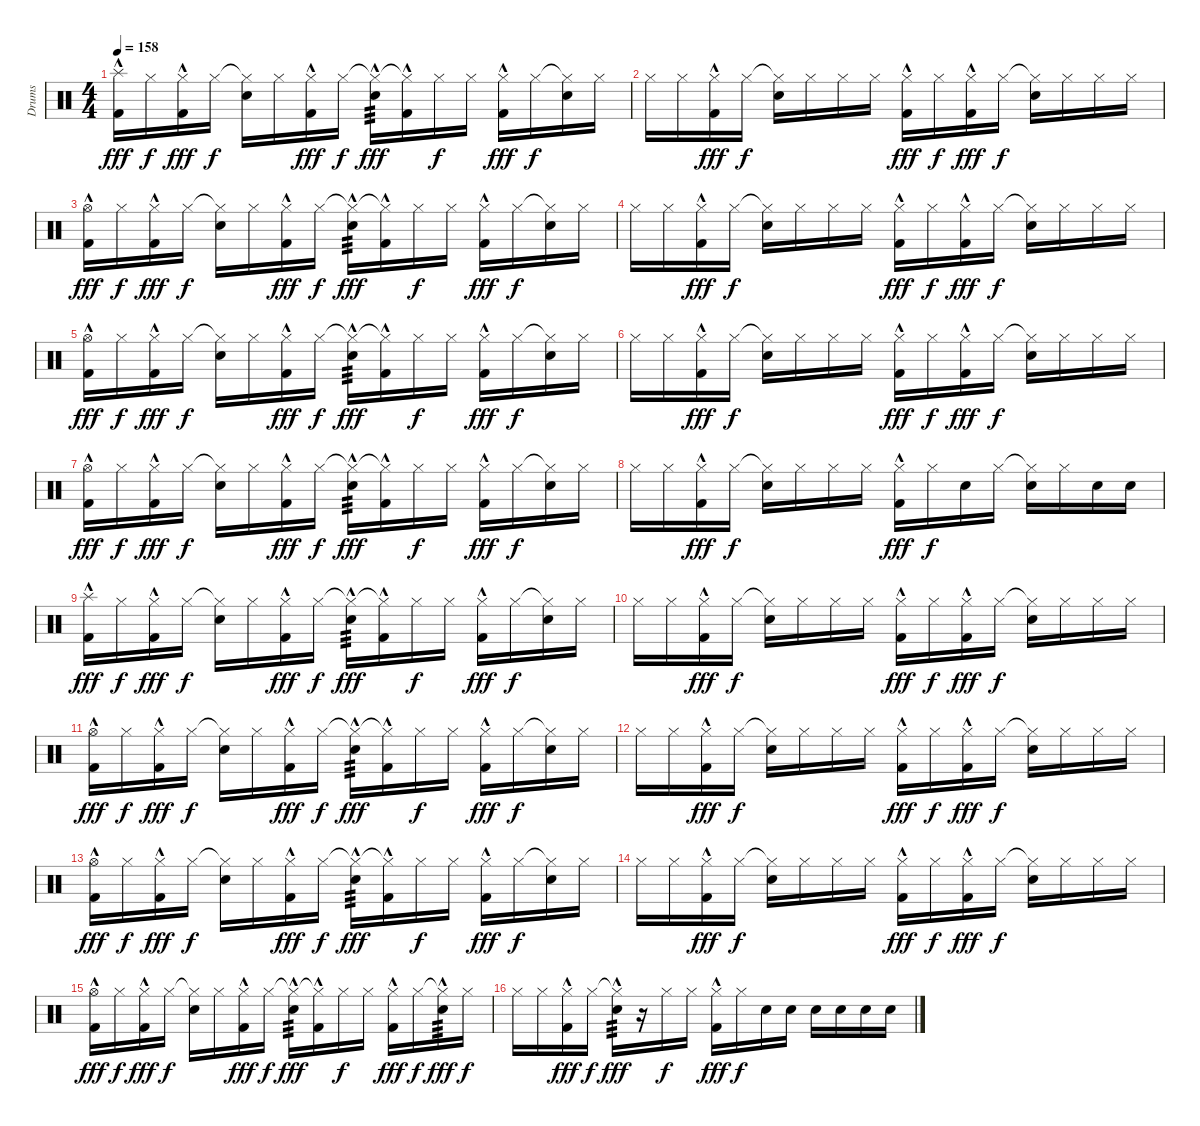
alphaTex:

\track ("Drums" "Drums") {instrument percussion}
\staff {score}
\articulation defaults
\ts (4 4)
\tempo 158
\clef neutral
\ks c
("Splash (hit)" "Kick (hit) 2"{hac}).16{dy fff} "Hi-Hat (closed)".16{dy f} ("Hi-Hat (closed)" "Kick (hit) 2"{hac}).16{dy fff} "Hi-Hat (closed)".16{dy f} ("Hi-Hat (closed)"{t} "Electric Snare (hit)").16 "Hi-Hat (closed)".16 ("Hi-Hat (closed)" "Kick (hit) 2"{hac}).16{dy fff} "Hi-Hat (closed)".16{dy f} ("Hi-Hat (closed)"{t} "Electric Snare (hit)"{hac}).16{tp 3 dy fff} ("Hi-Hat (closed)"{t} "Kick (hit) 2"{hac}).16 "Hi-Hat (closed)".16{dy f} "Hi-Hat (closed)".16 ("Hi-Hat (closed)" "Kick (hit) 2"{hac}).16{dy fff} "Hi-Hat (closed)".16{dy f} ("Hi-Hat (closed)"{t} "Electric Snare (hit)").16 "Hi-Hat (closed)".16 |
"Hi-Hat (closed)".16 "Hi-Hat (closed)".16 ("Hi-Hat (closed)" "Kick (hit) 2"{hac}).16{dy fff} "Hi-Hat (closed)".16{dy f} ("Hi-Hat (closed)"{t} "Electric Snare (hit)").16 "Hi-Hat (closed)".16 "Hi-Hat (closed)".16 "Hi-Hat (closed)".16 ("Hi-Hat (closed)" "Kick (hit) 2"{hac}).16{dy fff} "Hi-Hat (closed)".16{dy f} ("Hi-Hat (closed)" "Kick (hit) 2"{hac}).16{dy fff} "Hi-Hat (closed)".16{dy f} ("Hi-Hat (closed)"{t} "Electric Snare (hit)").16 "Hi-Hat (closed)".16 "Hi-Hat (closed)".16 "Hi-Hat (closed)".16 |
("Hi-Hat (open)" "Kick (hit) 2"{hac}).16{dy fff} "Hi-Hat (closed)".16{dy f} ("Hi-Hat (closed)" "Kick (hit) 2"{hac}).16{dy fff} "Hi-Hat (closed)".16{dy f} ("Hi-Hat (closed)"{t} "Electric Snare (hit)").16 "Hi-Hat (closed)".16 ("Hi-Hat (closed)" "Kick (hit) 2"{hac}).16{dy fff} "Hi-Hat (closed)".16{dy f} ("Hi-Hat (closed)"{t} "Electric Snare (hit)"{hac}).16{tp 3 dy fff} ("Hi-Hat (closed)"{t} "Kick (hit) 2"{hac}).16 "Hi-Hat (closed)".16{dy f} "Hi-Hat (closed)".16 ("Hi-Hat (closed)" "Kick (hit) 2"{hac}).16{dy fff} "Hi-Hat (closed)".16{dy f} ("Hi-Hat (closed)"{t} "Electric Snare (hit)").16 "Hi-Hat (closed)".16 |
"Hi-Hat (closed)".16 "Hi-Hat (closed)".16 ("Hi-Hat (closed)" "Kick (hit) 2"{hac}).16{dy fff} "Hi-Hat (closed)".16{dy f} ("Hi-Hat (closed)"{t} "Electric Snare (hit)").16 "Hi-Hat (closed)".16 "Hi-Hat (closed)".16 "Hi-Hat (closed)".16 ("Hi-Hat (closed)" "Kick (hit) 2"{hac}).16{dy fff} "Hi-Hat (closed)".16{dy f} ("Hi-Hat (closed)" "Kick (hit) 2"{hac}).16{dy fff} "Hi-Hat (closed)".16{dy f} ("Hi-Hat (closed)"{t} "Electric Snare (hit)").16 "Hi-Hat (closed)".16 "Hi-Hat (closed)".16 "Hi-Hat (closed)".16 |
("Hi-Hat (open)" "Kick (hit) 2"{hac}).16{dy fff} "Hi-Hat (closed)".16{dy f} ("Hi-Hat (closed)" "Kick (hit) 2"{hac}).16{dy fff} "Hi-Hat (closed)".16{dy f} ("Hi-Hat (closed)"{t} "Electric Snare (hit)").16 "Hi-Hat (closed)".16 ("Hi-Hat (closed)" "Kick (hit) 2"{hac}).16{dy fff} "Hi-Hat (closed)".16{dy f} ("Hi-Hat (closed)"{t} "Electric Snare (hit)"{hac}).16{tp 3 dy fff} ("Hi-Hat (closed)"{t} "Kick (hit) 2"{hac}).16 "Hi-Hat (closed)".16{dy f} "Hi-Hat (closed)".16 ("Hi-Hat (closed)" "Kick (hit) 2"{hac}).16{dy fff} "Hi-Hat (closed)".16{dy f} ("Hi-Hat (closed)"{t} "Electric Snare (hit)").16 "Hi-Hat (closed)".16 |
"Hi-Hat (closed)".16 "Hi-Hat (closed)".16 ("Hi-Hat (closed)" "Kick (hit) 2"{hac}).16{dy fff} "Hi-Hat (closed)".16{dy f} ("Hi-Hat (closed)"{t} "Electric Snare (hit)").16 "Hi-Hat (closed)".16 "Hi-Hat (closed)".16 "Hi-Hat (closed)".16 ("Hi-Hat (closed)" "Kick (hit) 2"{hac}).16{dy fff} "Hi-Hat (closed)".16{dy f} ("Hi-Hat (closed)" "Kick (hit) 2"{hac}).16{dy fff} "Hi-Hat (closed)".16{dy f} ("Hi-Hat (closed)"{t} "Electric Snare (hit)").16 "Hi-Hat (closed)".16 "Hi-Hat (closed)".16 "Hi-Hat (closed)".16 |
("Hi-Hat (open)" "Kick (hit) 2"{hac}).16{dy fff} "Hi-Hat (closed)".16{dy f} ("Hi-Hat (closed)" "Kick (hit) 2"{hac}).16{dy fff} "Hi-Hat (closed)".16{dy f} ("Hi-Hat (closed)"{t} "Electric Snare (hit)").16 "Hi-Hat (closed)".16 ("Hi-Hat (closed)" "Kick (hit) 2"{hac}).16{dy fff} "Hi-Hat (closed)".16{dy f} ("Hi-Hat (closed)"{t} "Electric Snare (hit)"{hac}).16{tp 3 dy fff} ("Hi-Hat (closed)"{t} "Kick (hit) 2"{hac}).16 "Hi-Hat (closed)".16{dy f} "Hi-Hat (closed)".16 ("Hi-Hat (closed)" "Kick (hit) 2"{hac}).16{dy fff} "Hi-Hat (closed)".16{dy f} ("Hi-Hat (closed)"{t} "Electric Snare (hit)").16 "Hi-Hat (closed)".16 |
"Hi-Hat (closed)".16 "Hi-Hat (closed)".16 ("Hi-Hat (closed)" "Kick (hit) 2"{hac}).16{dy fff} "Hi-Hat (closed)".16{dy f} ("Hi-Hat (closed)"{t} "Electric Snare (hit)").16 "Hi-Hat (closed)".16 "Hi-Hat (closed)".16 "Hi-Hat (closed)".16 ("Hi-Hat (closed)" "Kick (hit) 2"{hac}).16{dy fff} "Hi-Hat (closed)".16{dy f} "Electric Snare (hit)".16 "Hi-Hat (closed)".16 ("Hi-Hat (closed)"{t} "Electric Snare (hit)").16 "Hi-Hat (closed)".16 "Electric Snare (hit)".16 "Electric Snare (hit)".16 |
("Splash (hit)" "Kick (hit) 2"{hac}).16{dy fff} "Hi-Hat (closed)".16{dy f} ("Hi-Hat (closed)" "Kick (hit) 2"{hac}).16{dy fff} "Hi-Hat (closed)".16{dy f} ("Hi-Hat (closed)"{t} "Electric Snare (hit)").16 "Hi-Hat (closed)".16 ("Hi-Hat (closed)" "Kick (hit) 2"{hac}).16{dy fff} "Hi-Hat (closed)".16{dy f} ("Hi-Hat (closed)"{t} "Electric Snare (hit)"{hac}).16{tp 3 dy fff} ("Hi-Hat (closed)"{t} "Kick (hit) 2"{hac}).16 "Hi-Hat (closed)".16{dy f} "Hi-Hat (closed)".16 ("Hi-Hat (closed)" "Kick (hit) 2"{hac}).16{dy fff} "Hi-Hat (closed)".16{dy f} ("Hi-Hat (closed)"{t} "Electric Snare (hit)").16 "Hi-Hat (closed)".16 |
"Hi-Hat (closed)".16 "Hi-Hat (closed)".16 ("Hi-Hat (closed)" "Kick (hit) 2"{hac}).16{dy fff} "Hi-Hat (closed)".16{dy f} ("Hi-Hat (closed)"{t} "Electric Snare (hit)").16 "Hi-Hat (closed)".16 "Hi-Hat (closed)".16 "Hi-Hat (closed)".16 ("Hi-Hat (closed)" "Kick (hit) 2"{hac}).16{dy fff} "Hi-Hat (closed)".16{dy f} ("Hi-Hat (closed)" "Kick (hit) 2"{hac}).16{dy fff} "Hi-Hat (closed)".16{dy f} ("Hi-Hat (closed)"{t} "Electric Snare (hit)").16 "Hi-Hat (closed)".16 "Hi-Hat (closed)".16 "Hi-Hat (closed)".16 |
("Hi-Hat (open)" "Kick (hit) 2"{hac}).16{dy fff} "Hi-Hat (closed)".16{dy f} ("Hi-Hat (closed)" "Kick (hit) 2"{hac}).16{dy fff} "Hi-Hat (closed)".16{dy f} ("Hi-Hat (closed)"{t} "Electric Snare (hit)").16 "Hi-Hat (closed)".16 ("Hi-Hat (closed)" "Kick (hit) 2"{hac}).16{dy fff} "Hi-Hat (closed)".16{dy f} ("Hi-Hat (closed)"{t} "Electric Snare (hit)"{hac}).16{tp 3 dy fff} ("Hi-Hat (closed)"{t} "Kick (hit) 2"{hac}).16 "Hi-Hat (closed)".16{dy f} "Hi-Hat (closed)".16 ("Hi-Hat (closed)" "Kick (hit) 2"{hac}).16{dy fff} "Hi-Hat (closed)".16{dy f} ("Hi-Hat (closed)"{t} "Electric Snare (hit)").16 "Hi-Hat (closed)".16 |
"Hi-Hat (closed)".16 "Hi-Hat (closed)".16 ("Hi-Hat (closed)" "Kick (hit) 2"{hac}).16{dy fff} "Hi-Hat (closed)".16{dy f} ("Hi-Hat (closed)"{t} "Electric Snare (hit)").16 "Hi-Hat (closed)".16 "Hi-Hat (closed)".16 "Hi-Hat (closed)".16 ("Hi-Hat (closed)" "Kick (hit) 2"{hac}).16{dy fff} "Hi-Hat (closed)".16{dy f} ("Hi-Hat (closed)" "Kick (hit) 2"{hac}).16{dy fff} "Hi-Hat (closed)".16{dy f} ("Hi-Hat (closed)"{t} "Electric Snare (hit)").16 "Hi-Hat (closed)".16 "Hi-Hat (closed)".16 "Hi-Hat (closed)".16 |
("Hi-Hat (open)" "Kick (hit) 2"{hac}).16{dy fff} "Hi-Hat (closed)".16{dy f} ("Hi-Hat (closed)" "Kick (hit) 2"{hac}).16{dy fff} "Hi-Hat (closed)".16{dy f} ("Hi-Hat (closed)"{t} "Electric Snare (hit)").16 "Hi-Hat (closed)".16 ("Hi-Hat (closed)" "Kick (hit) 2"{hac}).16{dy fff} "Hi-Hat (closed)".16{dy f} ("Hi-Hat (closed)"{t} "Electric Snare (hit)"{hac}).16{tp 3 dy fff} ("Hi-Hat (closed)"{t} "Kick (hit) 2"{hac}).16 "Hi-Hat (closed)".16{dy f} "Hi-Hat (closed)".16 ("Hi-Hat (closed)" "Kick (hit) 2"{hac}).16{dy fff} "Hi-Hat (closed)".16{dy f} ("Hi-Hat (closed)"{t} "Electric Snare (hit)").16 "Hi-Hat (closed)".16 |
"Hi-Hat (closed)".16 "Hi-Hat (closed)".16 ("Hi-Hat (closed)" "Kick (hit) 2"{hac}).16{dy fff} "Hi-Hat (closed)".16{dy f} ("Hi-Hat (closed)"{t} "Electric Snare (hit)").16 "Hi-Hat (closed)".16 "Hi-Hat (closed)".16 "Hi-Hat (closed)".16 ("Hi-Hat (closed)" "Kick (hit) 2"{hac}).16{dy fff} "Hi-Hat (closed)".16{dy f} ("Hi-Hat (closed)" "Kick (hit) 2"{hac}).16{dy fff} "Hi-Hat (closed)".16{dy f} ("Hi-Hat (closed)"{t} "Electric Snare (hit)").16 "Hi-Hat (closed)".16 "Hi-Hat (closed)".16 "Hi-Hat (closed)".16 |
("Hi-Hat (open)" "Kick (hit) 2"{hac}).16{dy fff} "Hi-Hat (closed)".16{dy f} ("Hi-Hat (closed)" "Kick (hit) 2"{hac}).16{dy fff} "Hi-Hat (closed)".16{dy f} ("Hi-Hat (closed)"{t} "Electric Snare (hit)").16 "Hi-Hat (closed)".16 ("Hi-Hat (closed)" "Kick (hit) 2"{hac}).16{dy fff} "Hi-Hat (closed)".16{dy f} ("Hi-Hat (closed)"{t} "Electric Snare (hit)"{hac}).16{tp 3 dy fff} ("Hi-Hat (closed)"{t} "Kick (hit) 2"{hac}).16 "Hi-Hat (closed)".16{dy f} "Hi-Hat (closed)".16 ("Hi-Hat (closed)" "Kick (hit) 2"{hac}).16{dy fff} "Hi-Hat (closed)".16{dy f} ("Hi-Hat (closed)"{t} "Electric Snare (hit)"{hac}).16{tp 3 dy fff} "Hi-Hat (closed)".16{dy f} |
"Hi-Hat (closed)".16 "Hi-Hat (closed)".16 ("Hi-Hat (closed)" "Kick (hit) 2"{hac}).16{dy fff} "Hi-Hat (closed)".16{dy f} ("Hi-Hat (closed)"{t} "Electric Snare (hit)"{hac}).16{tp 3 dy fff} r.16 "Hi-Hat (closed)".16{dy f} "Hi-Hat (closed)".16 ("Hi-Hat (closed)" "Kick (hit) 2"{hac}).16{dy fff} "Hi-Hat (closed)".16{dy f} "Electric Snare (hit)".16 "Electric Snare (hit)".16 "Electric Snare (hit)".16 "Electric Snare (hit)".16 "Electric Snare (hit)".16 "Electric Snare (hit)".16
